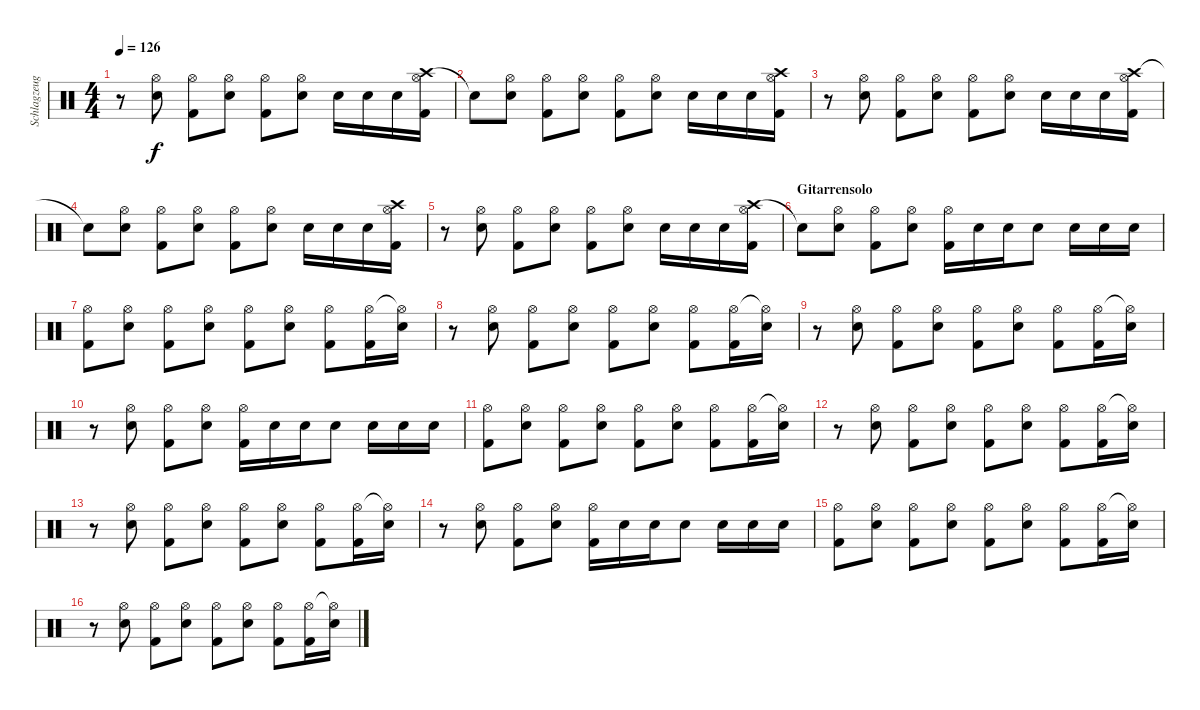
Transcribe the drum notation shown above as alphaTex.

\track ("Schlagzeug - Bela" "Schlagzeug") {instrument percussion}
\staff {score}
\articulation defaults
\ts (4 4)
\tempo 126
\clef neutral
\ks c
r.8{dy f} ("Snare (hit) 2" "Hi-Hat (open)").8 ("Kick (hit) 2" "Hi-Hat (open)").8 ("Snare (hit) 2" "Hi-Hat (open)").8 ("Kick (hit) 2" "Hi-Hat (open)").8 ("Snare (hit) 2" "Hi-Hat (open)").8 "Snare (hit) 2".16 "Snare (hit) 2".16 "Snare (hit) 2".16 ("Crash high (hit)" "Kick (hit) 2" "Hi-Hat (open)").16 |
"Snare (hit)"{t}.8 ("Snare (hit) 2" "Hi-Hat (open)").8 ("Kick (hit) 2" "Hi-Hat (open)").8 ("Snare (hit) 2" "Hi-Hat (open)").8 ("Kick (hit) 2" "Hi-Hat (open)").8 ("Snare (hit) 2" "Hi-Hat (open)").8 "Snare (hit) 2".16 "Snare (hit) 2".16 "Snare (hit) 2".16 ("Crash high (hit)" "Kick (hit) 2" "Hi-Hat (open)").16 |
r.8 ("Snare (hit) 2" "Hi-Hat (open)").8 ("Kick (hit) 2" "Hi-Hat (open)").8 ("Snare (hit) 2" "Hi-Hat (open)").8 ("Kick (hit) 2" "Hi-Hat (open)").8 ("Snare (hit) 2" "Hi-Hat (open)").8 "Snare (hit) 2".16 "Snare (hit) 2".16 "Snare (hit) 2".16 ("Crash high (hit)" "Kick (hit) 2" "Hi-Hat (open)").16 |
"Snare (hit)"{t}.8 ("Snare (hit) 2" "Hi-Hat (open)").8 ("Kick (hit) 2" "Hi-Hat (open)").8 ("Snare (hit) 2" "Hi-Hat (open)").8 ("Kick (hit) 2" "Hi-Hat (open)").8 ("Snare (hit) 2" "Hi-Hat (open)").8 "Snare (hit) 2".16 "Snare (hit) 2".16 "Snare (hit) 2".16 ("Crash high (hit)" "Kick (hit) 2" "Hi-Hat (open)").16 |
r.8 ("Snare (hit) 2" "Hi-Hat (open)").8 ("Kick (hit) 2" "Hi-Hat (open)").8 ("Snare (hit) 2" "Hi-Hat (open)").8 ("Kick (hit) 2" "Hi-Hat (open)").8 ("Snare (hit) 2" "Hi-Hat (open)").8 "Snare (hit) 2".16 "Snare (hit) 2".16 "Snare (hit) 2".16 ("Crash high (hit)" "Kick (hit) 2" "Hi-Hat (open)").16 |
\section ("" "Gitarrensolo")
"Snare (hit)"{t}.8 ("Snare (hit) 2" "Hi-Hat (open)").8 ("Kick (hit) 2" "Hi-Hat (open)").8 ("Snare (hit) 2" "Hi-Hat (open)").8 ("Kick (hit) 2" "Hi-Hat (open)").16 "Snare (hit) 2".16 "Snare (hit) 2".16 "Snare (hit) 2".8 "Snare (hit) 2".16 "Snare (hit) 2".16 "Snare (hit) 2".16 |
("Kick (hit) 2" "Hi-Hat (open)").8 ("Snare (hit) 2" "Hi-Hat (open)").8 ("Kick (hit) 2" "Hi-Hat (open)").8 ("Snare (hit) 2" "Hi-Hat (open)").8 ("Kick (hit) 2" "Hi-Hat (open)").8 ("Snare (hit) 2" "Hi-Hat (open)").8 ("Kick (hit) 2" "Hi-Hat (open)").8 ("Kick (hit) 2" "Hi-Hat (open)").16 ("Snare (hit) 2" "Hi-Hat (open)"{t}).16 |
r.8 ("Snare (hit) 2" "Hi-Hat (open)").8 ("Kick (hit) 2" "Hi-Hat (open)").8 ("Snare (hit) 2" "Hi-Hat (open)").8 ("Kick (hit) 2" "Hi-Hat (open)").8 ("Snare (hit) 2" "Hi-Hat (open)").8 ("Kick (hit) 2" "Hi-Hat (open)").8 ("Kick (hit) 2" "Hi-Hat (open)").16 ("Snare (hit) 2" "Hi-Hat (open)"{t}).16 |
r.8 ("Snare (hit) 2" "Hi-Hat (open)").8 ("Kick (hit) 2" "Hi-Hat (open)").8 ("Snare (hit) 2" "Hi-Hat (open)").8 ("Kick (hit) 2" "Hi-Hat (open)").8 ("Snare (hit) 2" "Hi-Hat (open)").8 ("Kick (hit) 2" "Hi-Hat (open)").8 ("Kick (hit) 2" "Hi-Hat (open)").16 ("Snare (hit) 2" "Hi-Hat (open)"{t}).16 |
r.8 ("Snare (hit) 2" "Hi-Hat (open)").8 ("Kick (hit) 2" "Hi-Hat (open)").8 ("Snare (hit) 2" "Hi-Hat (open)").8 ("Kick (hit) 2" "Hi-Hat (open)").16 "Snare (hit) 2".16 "Snare (hit) 2".16 "Snare (hit) 2".8 "Snare (hit) 2".16 "Snare (hit) 2".16 "Snare (hit) 2".16 |
("Kick (hit) 2" "Hi-Hat (open)").8 ("Snare (hit) 2" "Hi-Hat (open)").8 ("Kick (hit) 2" "Hi-Hat (open)").8 ("Snare (hit) 2" "Hi-Hat (open)").8 ("Kick (hit) 2" "Hi-Hat (open)").8 ("Snare (hit) 2" "Hi-Hat (open)").8 ("Kick (hit) 2" "Hi-Hat (open)").8 ("Kick (hit) 2" "Hi-Hat (open)").16 ("Snare (hit) 2" "Hi-Hat (open)"{t}).16 |
r.8 ("Snare (hit) 2" "Hi-Hat (open)").8 ("Kick (hit) 2" "Hi-Hat (open)").8 ("Snare (hit) 2" "Hi-Hat (open)").8 ("Kick (hit) 2" "Hi-Hat (open)").8 ("Snare (hit) 2" "Hi-Hat (open)").8 ("Kick (hit) 2" "Hi-Hat (open)").8 ("Kick (hit) 2" "Hi-Hat (open)").16 ("Snare (hit) 2" "Hi-Hat (open)"{t}).16 |
r.8 ("Snare (hit) 2" "Hi-Hat (open)").8 ("Kick (hit) 2" "Hi-Hat (open)").8 ("Snare (hit) 2" "Hi-Hat (open)").8 ("Kick (hit) 2" "Hi-Hat (open)").8 ("Snare (hit) 2" "Hi-Hat (open)").8 ("Kick (hit) 2" "Hi-Hat (open)").8 ("Kick (hit) 2" "Hi-Hat (open)").16 ("Snare (hit) 2" "Hi-Hat (open)"{t}).16 |
r.8 ("Snare (hit) 2" "Hi-Hat (open)").8 ("Kick (hit) 2" "Hi-Hat (open)").8 ("Snare (hit) 2" "Hi-Hat (open)").8 ("Kick (hit) 2" "Hi-Hat (open)").16 "Snare (hit) 2".16 "Snare (hit) 2".16 "Snare (hit) 2".8 "Snare (hit) 2".16 "Snare (hit) 2".16 "Snare (hit) 2".16 |
("Kick (hit) 2" "Hi-Hat (open)").8 ("Snare (hit) 2" "Hi-Hat (open)").8 ("Kick (hit) 2" "Hi-Hat (open)").8 ("Snare (hit) 2" "Hi-Hat (open)").8 ("Kick (hit) 2" "Hi-Hat (open)").8 ("Snare (hit) 2" "Hi-Hat (open)").8 ("Kick (hit) 2" "Hi-Hat (open)").8 ("Kick (hit) 2" "Hi-Hat (open)").16 ("Snare (hit) 2" "Hi-Hat (open)"{t}).16 |
r.8 ("Snare (hit) 2" "Hi-Hat (open)").8 ("Kick (hit) 2" "Hi-Hat (open)").8 ("Snare (hit) 2" "Hi-Hat (open)").8 ("Kick (hit) 2" "Hi-Hat (open)").8 ("Snare (hit) 2" "Hi-Hat (open)").8 ("Kick (hit) 2" "Hi-Hat (open)").8 ("Kick (hit) 2" "Hi-Hat (open)").16 ("Snare (hit) 2" "Hi-Hat (open)"{t}).16
